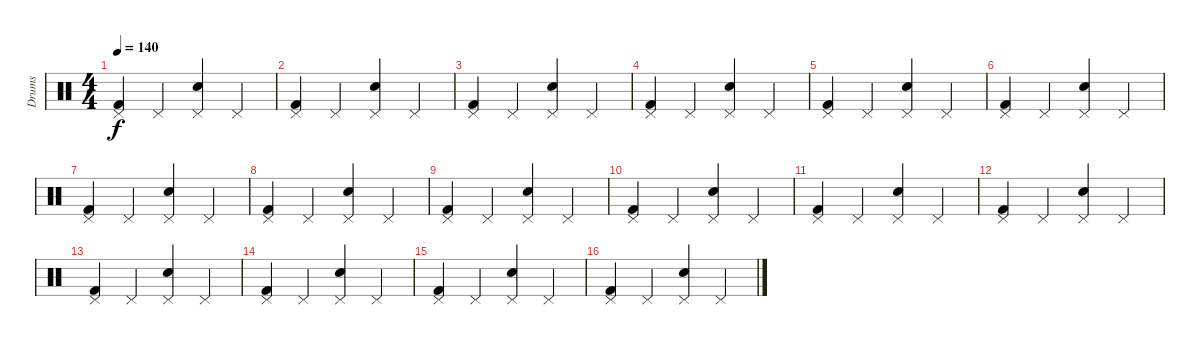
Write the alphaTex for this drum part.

\track ("Drums" "Drums") {instrument percussion}
\staff {score}
\articulation defaults
\ts (4 4)
\tempo 140
\clef neutral
\ks c
("Pedal Hi-Hat (hit)" "Kick (hit) 2").4{dy f} "Pedal Hi-Hat (hit)".4 ("Pedal Hi-Hat (hit)" "Snare (hit) 2").4 "Pedal Hi-Hat (hit)".4 |
("Pedal Hi-Hat (hit)" "Kick (hit) 2").4 "Pedal Hi-Hat (hit)".4 ("Pedal Hi-Hat (hit)" "Snare (hit) 2").4 "Pedal Hi-Hat (hit)".4 |
("Pedal Hi-Hat (hit)" "Kick (hit) 2").4 "Pedal Hi-Hat (hit)".4 ("Pedal Hi-Hat (hit)" "Snare (hit) 2").4 "Pedal Hi-Hat (hit)".4 |
("Pedal Hi-Hat (hit)" "Kick (hit) 2").4 "Pedal Hi-Hat (hit)".4 ("Pedal Hi-Hat (hit)" "Snare (hit) 2").4 "Pedal Hi-Hat (hit)".4 |
("Pedal Hi-Hat (hit)" "Kick (hit) 2").4 "Pedal Hi-Hat (hit)".4 ("Pedal Hi-Hat (hit)" "Snare (hit) 2").4 "Pedal Hi-Hat (hit)".4 |
("Pedal Hi-Hat (hit)" "Kick (hit) 2").4 "Pedal Hi-Hat (hit)".4 ("Pedal Hi-Hat (hit)" "Snare (hit) 2").4 "Pedal Hi-Hat (hit)".4 |
("Pedal Hi-Hat (hit)" "Kick (hit) 2").4 "Pedal Hi-Hat (hit)".4 ("Pedal Hi-Hat (hit)" "Snare (hit) 2").4 "Pedal Hi-Hat (hit)".4 |
("Pedal Hi-Hat (hit)" "Kick (hit) 2").4 "Pedal Hi-Hat (hit)".4 ("Pedal Hi-Hat (hit)" "Snare (hit) 2").4 "Pedal Hi-Hat (hit)".4 |
("Pedal Hi-Hat (hit)" "Kick (hit) 2").4 "Pedal Hi-Hat (hit)".4 ("Pedal Hi-Hat (hit)" "Snare (hit) 2").4 "Pedal Hi-Hat (hit)".4 |
("Pedal Hi-Hat (hit)" "Kick (hit) 2").4 "Pedal Hi-Hat (hit)".4 ("Pedal Hi-Hat (hit)" "Snare (hit) 2").4 "Pedal Hi-Hat (hit)".4 |
("Pedal Hi-Hat (hit)" "Kick (hit) 2").4 "Pedal Hi-Hat (hit)".4 ("Pedal Hi-Hat (hit)" "Snare (hit) 2").4 "Pedal Hi-Hat (hit)".4 |
("Pedal Hi-Hat (hit)" "Kick (hit) 2").4 "Pedal Hi-Hat (hit)".4 ("Pedal Hi-Hat (hit)" "Snare (hit) 2").4 "Pedal Hi-Hat (hit)".4 |
("Pedal Hi-Hat (hit)" "Kick (hit) 2").4 "Pedal Hi-Hat (hit)".4 ("Pedal Hi-Hat (hit)" "Snare (hit) 2").4 "Pedal Hi-Hat (hit)".4 |
("Pedal Hi-Hat (hit)" "Kick (hit) 2").4 "Pedal Hi-Hat (hit)".4 ("Pedal Hi-Hat (hit)" "Snare (hit) 2").4 "Pedal Hi-Hat (hit)".4 |
("Pedal Hi-Hat (hit)" "Kick (hit) 2").4 "Pedal Hi-Hat (hit)".4 ("Pedal Hi-Hat (hit)" "Snare (hit) 2").4 "Pedal Hi-Hat (hit)".4 |
("Pedal Hi-Hat (hit)" "Kick (hit) 2").4 "Pedal Hi-Hat (hit)".4 ("Pedal Hi-Hat (hit)" "Snare (hit) 2").4 "Pedal Hi-Hat (hit)".4
